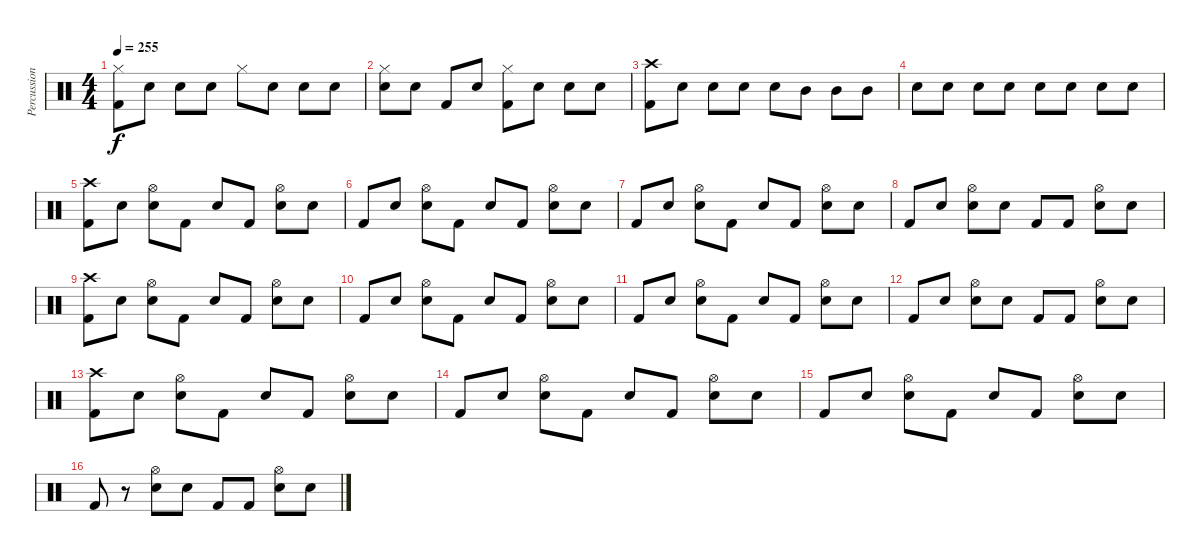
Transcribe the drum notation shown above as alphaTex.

\track ("Percussion" "Percussion") {instrument percussion}
\staff {score}
\articulation defaults
\ts (4 4)
\tempo 255
\clef neutral
\ks c
("Kick (hit) 2" "Hi-Hat (closed)").8{dy f} "Snare (hit)"{x}.8 "Snare (hit)"{x}.8 "Snare (hit)"{x}.8 "Hi-Hat (closed)".8 "Snare (hit)"{x}.8 "Snare (hit)"{x}.8 "Snare (hit)"{x}.8 |
("Snare (hit) 2" "Hi-Hat (closed)").8 "Snare (hit)"{x}.8 "Kick (hit) 2".8 "Snare (hit)"{x}.8 ("Kick (hit) 2" "Hi-Hat (closed)").8 "Snare (hit)"{x}.8 "Snare (hit)"{x}.8 "Snare (hit)"{x}.8 |
("Kick (hit) 2" "Crash high (hit)").8 "Snare (hit) 2"{x}.8 "Snare (hit) 2".8 "Snare (hit) 2".8 "Snare (hit) 2".8 "Mid Tom (hit)".8 "Mid Tom (hit)".8 "Mid Tom (hit)".8 |
"Snare (hit) 2".8 "Snare (hit) 2".8 "Snare (hit) 2".8 "Snare (hit) 2".8 "Snare (hit) 2".8 "Snare (hit) 2".8 "Snare (hit) 2".8 "Snare (hit) 2".8 |
("Kick (hit) 2" "Crash high (hit)").8 "Snare (hit)"{x}.8 ("Snare (hit) 2" "Hi-Hat (open)").8 "Kick (hit) 2".8 "Snare (hit)"{x}.8 "Kick (hit) 2".8 ("Snare (hit) 2" "Hi-Hat (open)").8 "Snare (hit)"{x}.8 |
"Kick (hit) 2".8 "Snare (hit)"{x}.8 ("Snare (hit) 2" "Hi-Hat (open)").8 "Kick (hit) 2".8 "Snare (hit)"{x}.8 "Kick (hit) 2".8 ("Snare (hit) 2" "Hi-Hat (open)").8 "Snare (hit)"{x}.8 |
"Kick (hit) 2".8 "Snare (hit)"{x}.8 ("Snare (hit) 2" "Hi-Hat (open)").8 "Kick (hit) 2".8 "Snare (hit)"{x}.8 "Kick (hit) 2".8 ("Snare (hit) 2" "Hi-Hat (open)").8 "Snare (hit)"{x}.8 |
"Kick (hit) 2".8 "Snare (hit)"{x}.8 ("Snare (hit) 2" "Hi-Hat (open)").8 "Snare (hit)"{x}.8 "Kick (hit) 2".8 "Kick (hit) 2".8 ("Snare (hit) 2" "Hi-Hat (open)").8 "Snare (hit)"{x}.8 |
("Kick (hit) 2" "Crash high (hit)").8 "Snare (hit)"{x}.8 ("Snare (hit) 2" "Hi-Hat (open)").8 "Kick (hit) 2".8 "Snare (hit)"{x}.8 "Kick (hit) 2".8 ("Snare (hit) 2" "Hi-Hat (open)").8 "Snare (hit)"{x}.8 |
"Kick (hit) 2".8 "Snare (hit)"{x}.8 ("Snare (hit) 2" "Hi-Hat (open)").8 "Kick (hit) 2".8 "Snare (hit)"{x}.8 "Kick (hit) 2".8 ("Snare (hit) 2" "Hi-Hat (open)").8 "Snare (hit)"{x}.8 |
"Kick (hit) 2".8 "Snare (hit)"{x}.8 ("Snare (hit) 2" "Hi-Hat (open)").8 "Kick (hit) 2".8 "Snare (hit)"{x}.8 "Kick (hit) 2".8 ("Snare (hit) 2" "Hi-Hat (open)").8 "Snare (hit)"{x}.8 |
"Kick (hit) 2".8 "Snare (hit)"{x}.8 ("Snare (hit) 2" "Hi-Hat (open)").8 "Snare (hit)"{x}.8 "Kick (hit) 2".8 "Kick (hit) 2".8 ("Snare (hit) 2" "Hi-Hat (open)").8 "Snare (hit)"{x}.8 |
("Kick (hit) 2" "Crash high (hit)").8 "Snare (hit)"{x}.8 ("Snare (hit) 2" "Hi-Hat (open)").8 "Kick (hit) 2".8 "Snare (hit)"{x}.8 "Kick (hit) 2".8 ("Snare (hit) 2" "Hi-Hat (open)").8 "Snare (hit)"{x}.8 |
"Kick (hit) 2".8 "Snare (hit)"{x}.8 ("Snare (hit) 2" "Hi-Hat (open)").8 "Kick (hit) 2".8 "Snare (hit)"{x}.8 "Kick (hit) 2".8 ("Snare (hit) 2" "Hi-Hat (open)").8 "Snare (hit)"{x}.8 |
"Kick (hit) 2".8 "Snare (hit)"{x}.8 ("Snare (hit) 2" "Hi-Hat (open)").8 "Kick (hit) 2".8 "Snare (hit)"{x}.8 "Kick (hit) 2".8 ("Snare (hit) 2" "Hi-Hat (open)").8 "Snare (hit)"{x}.8 |
"Kick (hit) 2".8 r.8 ("Snare (hit) 2" "Hi-Hat (open)").8 "Snare (hit)"{x}.8 "Kick (hit) 2".8 "Kick (hit) 2".8 ("Snare (hit) 2" "Hi-Hat (open)").8 "Snare (hit)"{x}.8
